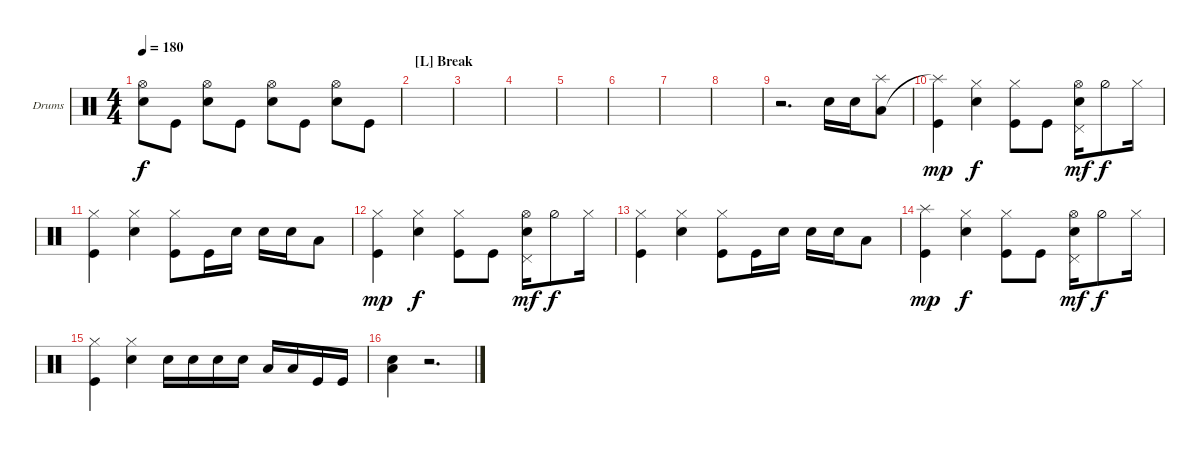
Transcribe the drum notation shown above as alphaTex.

\defaultSystemsLayout 4
\bracketExtendMode groupsimilarinstruments
\firstSystemTrackNameOrientation horizontal
\otherSystemsTrackNameOrientation horizontal
\track ("Drumkit" "Drums") {instrument percussion}
\staff {score}
\articulation defaults
\ts (4 4)
\tempo 180
\clef neutral
\ks c
("Hi-Hat (open)" "Snare (hit) 2").8{dy f} "Kick (hit)".8 ("Hi-Hat (open)" "Snare (hit) 2").8 "Kick (hit)".8 ("Hi-Hat (open)" "Snare (hit) 2").8 "Kick (hit)".8 ("Hi-Hat (open)" "Snare (hit) 2").8 "Kick (hit)".8 |
\section ("L" "Break ")
|
|
|
|
|
|
|
r.2{d} "Snare (hit) 2".16 "Snare (hit) 2".16 ("Low Tom (hit)" "Splash (hit)").8 |
("Splash (hit)"{t} "Kick (hit)").4{dy mp} ("Snare (hit) 2" "Hi-Hat (closed)").4{dy f} ("Kick (hit)" "Hi-Hat (closed)").8 "Kick (hit)".8 ("Hi-Hat (open)" "Snare (hit) 2" "Pedal Hi-Hat (hit)").16{dy mf} "Hi-Hat (half)".8{dy f} "Hi-Hat (closed)".16 |
("Kick (hit)" "Hi-Hat (closed)").4 ("Snare (hit) 2" "Hi-Hat (closed)").4 ("Kick (hit)" "Hi-Hat (closed)").8 "Kick (hit)".16 "Snare (hit) 2".16 "Snare (hit) 2".16 "Snare (hit) 2".16 "Low Tom (hit)".8 |
("Kick (hit)" "Hi-Hat (closed)").4{dy mp} ("Snare (hit) 2" "Hi-Hat (closed)").4{dy f} ("Kick (hit)" "Hi-Hat (closed)").8 "Kick (hit)".8 ("Hi-Hat (open)" "Snare (hit) 2" "Pedal Hi-Hat (hit)").16{dy mf} "Hi-Hat (half)".8{dy f} "Hi-Hat (closed)".16 |
("Kick (hit)" "Hi-Hat (closed)").4 ("Snare (hit) 2" "Hi-Hat (closed)").4 ("Kick (hit)" "Hi-Hat (closed)").8 "Kick (hit)".16 "Snare (hit) 2".16 "Snare (hit) 2".16 "Snare (hit) 2".16 "Low Tom (hit)".8 |
("Splash (hit)" "Kick (hit)").4{dy mp} ("Snare (hit) 2" "Hi-Hat (closed)").4{dy f} ("Kick (hit)" "Hi-Hat (closed)").8 "Kick (hit)".8 ("Hi-Hat (open)" "Snare (hit) 2" "Pedal Hi-Hat (hit)").16{dy mf} "Hi-Hat (half)".8{dy f} "Hi-Hat (closed)".16 |
("Kick (hit)" "Hi-Hat (closed)").4 ("Snare (hit) 2" "Hi-Hat (closed)").4 "Snare (hit) 2".16 "Snare (hit) 2".16 "Snare (hit) 2".16 "Snare (hit) 2".16 "Low Tom (hit)".16 "Low Tom (hit)".16 "Kick (hit)".16 "Kick (hit)".16 |
("Low Tom (hit)" "Snare (hit) 2").4 r.2{d}
